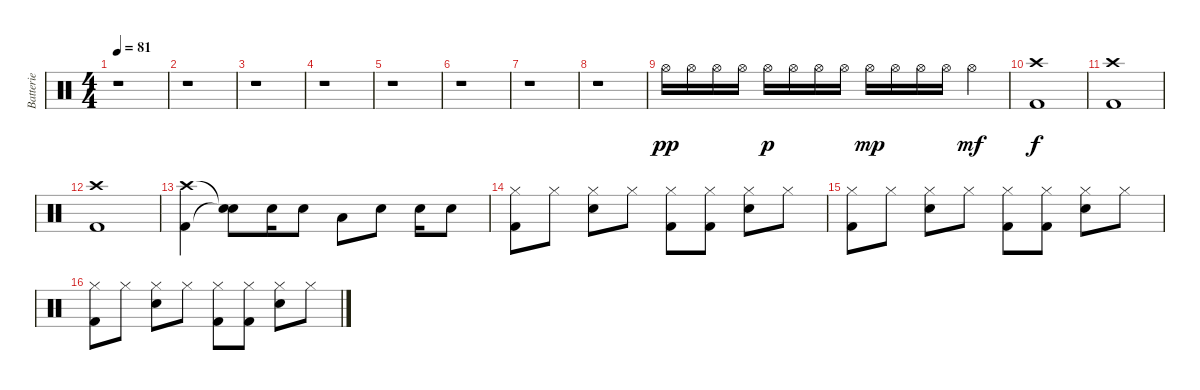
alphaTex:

\track ("Batterie" "Batterie") {instrument percussion}
\staff {score}
\articulation defaults
\ts (4 4)
\tempo 81
\clef neutral
\ks c
r.1{dy pp} |
r.1 |
r.1 |
r.1 |
r.1 |
r.1 |
r.1 |
r.1 |
"Hi-Hat (open)".16 "Hi-Hat (open)".16 "Hi-Hat (open)".16 "Hi-Hat (open)".16 "Hi-Hat (open)".16{dy p} "Hi-Hat (open)".16 "Hi-Hat (open)".16 "Hi-Hat (open)".16 "Hi-Hat (open)".16{dy mp} "Hi-Hat (open)".16 "Hi-Hat (open)".16 "Hi-Hat (open)".16 "Hi-Hat (open)".4{dy mf} |
("Crash high (hit)" "Kick (hit) 2").1{dy f} |
("Crash high (hit)" "Kick (hit) 2").1 |
("Crash high (hit)" "Kick (hit) 2").1 |
("Crash high (hit)" "Kick (hit) 2").4 ("Snare (hit)"{t} "Snare (hit)"{t}).8 "Electric Snare (hit)".16 "Electric Snare (hit)".8 "Low Tom (hit)".8 "Electric Snare (hit)".8 "Electric Snare (hit)".16 "Electric Snare (hit)".8 |
("Hi-Hat (closed)" "Kick (hit) 2").8 "Hi-Hat (closed)".8 ("Hi-Hat (closed)" "Electric Snare (hit)").8 "Hi-Hat (closed)".8 ("Hi-Hat (closed)" "Kick (hit) 2").8 ("Hi-Hat (closed)" "Kick (hit) 2").8 ("Hi-Hat (closed)" "Electric Snare (hit)").8 "Hi-Hat (closed)".8 |
("Hi-Hat (closed)" "Kick (hit) 2").8 "Hi-Hat (closed)".8 ("Hi-Hat (closed)" "Electric Snare (hit)").8 "Hi-Hat (closed)".8 ("Hi-Hat (closed)" "Kick (hit) 2").8 ("Hi-Hat (closed)" "Kick (hit) 2").8 ("Hi-Hat (closed)" "Electric Snare (hit)").8 "Hi-Hat (closed)".8 |
("Hi-Hat (closed)" "Kick (hit) 2").8 "Hi-Hat (closed)".8 ("Hi-Hat (closed)" "Electric Snare (hit)").8 "Hi-Hat (closed)".8 ("Hi-Hat (closed)" "Kick (hit) 2").8 ("Hi-Hat (closed)" "Kick (hit) 2").8 ("Hi-Hat (closed)" "Electric Snare (hit)").8 "Hi-Hat (closed)".8
